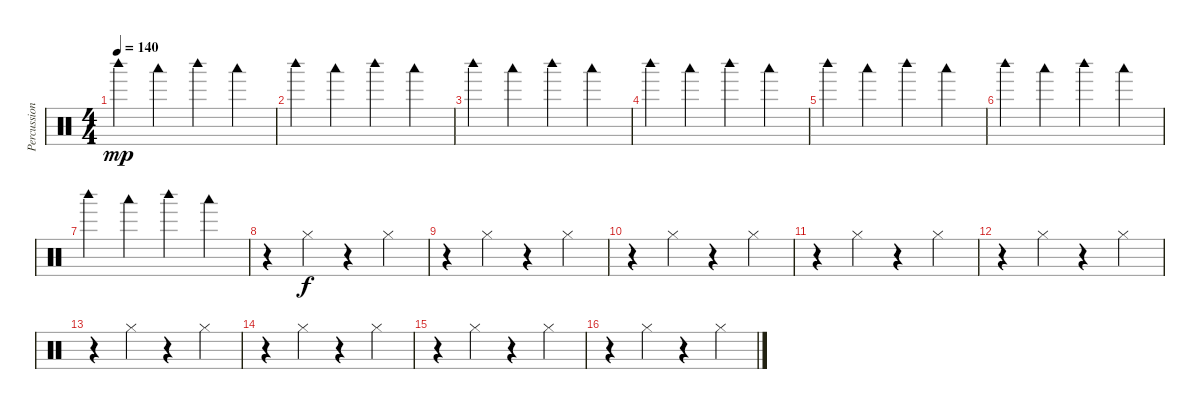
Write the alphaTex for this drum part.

\track ("Percussions" "Percussion") {instrument percussion}
\staff {score}
\articulation defaults
\ts (4 4)
\tempo 140
\clef neutral
\ks c "Woodblock high (hit)".4{dy mp} "Woodblock low (hit)".4 "Woodblock high (hit)".4 "Woodblock low (hit)".4
|
"Woodblock high (hit)".4 "Woodblock low (hit)".4 "Woodblock high (hit)".4 "Woodblock low (hit)".4 |
"Woodblock high (hit)".4 "Woodblock low (hit)".4 "Woodblock high (hit)".4 "Woodblock low (hit)".4 |
"Woodblock high (hit)".4 "Woodblock low (hit)".4 "Woodblock high (hit)".4 "Woodblock low (hit)".4 |
"Woodblock high (hit)".4 "Woodblock low (hit)".4 "Woodblock high (hit)".4 "Woodblock low (hit)".4 |
"Woodblock high (hit)".4 "Woodblock low (hit)".4 "Woodblock high (hit)".4 "Woodblock low (hit)".4 |
"Woodblock high (hit)".4 "Woodblock low (hit)".4 "Woodblock high (hit)".4 "Woodblock low (hit)".4 |
r.4 "Hi-Hat (closed)".4{dy f} r.4 "Hi-Hat (closed)".4 |
r.4 "Hi-Hat (closed)".4 r.4 "Hi-Hat (closed)".4 |
r.4 "Hi-Hat (closed)".4 r.4 "Hi-Hat (closed)".4 |
r.4 "Hi-Hat (closed)".4 r.4 "Hi-Hat (closed)".4 |
r.4 "Hi-Hat (closed)".4 r.4 "Hi-Hat (closed)".4 |
r.4 "Hi-Hat (closed)".4 r.4 "Hi-Hat (closed)".4 |
r.4 "Hi-Hat (closed)".4 r.4 "Hi-Hat (closed)".4 |
r.4 "Hi-Hat (closed)".4 r.4 "Hi-Hat (closed)".4 |
r.4 "Hi-Hat (closed)".4 r.4 "Hi-Hat (closed)".4
